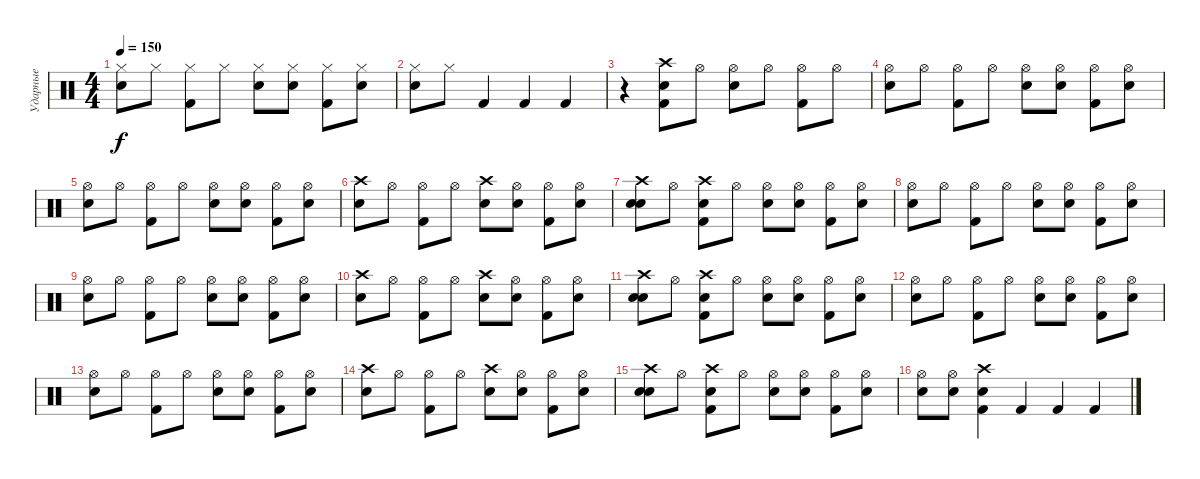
\track ("Ударные" "Ударные") {instrument percussion}
\staff {score}
\articulation defaults
\ts (4 4)
\tempo 150
\clef neutral
\ks c
("Hi-Hat (closed)" "Electric Snare (hit)").8{dy f} "Hi-Hat (closed)".8 ("Hi-Hat (closed)" "Kick (hit) 2").8 "Hi-Hat (closed)".8 ("Hi-Hat (closed)" "Electric Snare (hit)").8 ("Hi-Hat (closed)" "Snare (hit)").8 ("Hi-Hat (closed)" "Kick (hit) 2").8 ("Hi-Hat (closed)" "Snare (hit)").8 |
("Hi-Hat (closed)" "Electric Snare (hit)").8 "Hi-Hat (closed)".8 "Kick (hit) 2".4 "Kick (hit) 2".4 "Kick (hit) 2".4 |
r.4 ("Snare (hit)" "Kick (hit) 2" "Crash high (hit)").8 "Hi-Hat (open)".8 ("Hi-Hat (open)" "Electric Snare (hit)").8 "Hi-Hat (open)".8 ("Hi-Hat (open)" "Kick (hit) 2").8 "Hi-Hat (open)".8 |
("Hi-Hat (open)" "Electric Snare (hit)").8 "Hi-Hat (open)".8 ("Hi-Hat (open)" "Kick (hit) 2").8 "Hi-Hat (open)".8 ("Hi-Hat (open)" "Electric Snare (hit)").8 ("Hi-Hat (open)" "Snare (hit)").8 ("Hi-Hat (open)" "Kick (hit) 2").8 ("Hi-Hat (open)" "Snare (hit)").8 |
("Hi-Hat (open)" "Electric Snare (hit)").8 "Hi-Hat (open)".8 ("Hi-Hat (open)" "Kick (hit) 2").8 "Hi-Hat (open)".8 ("Hi-Hat (open)" "Electric Snare (hit)").8 ("Hi-Hat (open)" "Snare (hit)").8 ("Hi-Hat (open)" "Kick (hit) 2").8 ("Hi-Hat (open)" "Snare (hit)").8 |
("Crash high (hit)" "Electric Snare (hit)").8 "Hi-Hat (open)".8 ("Hi-Hat (open)" "Kick (hit) 2").8 "Hi-Hat (open)".8 ("Crash high (hit)" "Electric Snare (hit)").8 ("Hi-Hat (open)" "Snare (hit)").8 ("Hi-Hat (open)" "Kick (hit) 2").8 ("Hi-Hat (open)" "Snare (hit)").8 |
("Snare (hit)" "Electric Snare (hit)" "Crash high (hit)").8 "Hi-Hat (open)".8 ("Snare (hit)" "Kick (hit) 2" "Crash high (hit)").8 "Hi-Hat (open)".8 ("Hi-Hat (open)" "Electric Snare (hit)").8 ("Hi-Hat (open)" "Snare (hit)").8 ("Hi-Hat (open)" "Kick (hit) 2").8 ("Hi-Hat (open)" "Snare (hit)").8 |
("Hi-Hat (open)" "Electric Snare (hit)").8 "Hi-Hat (open)".8 ("Hi-Hat (open)" "Kick (hit) 2").8 "Hi-Hat (open)".8 ("Hi-Hat (open)" "Electric Snare (hit)").8 ("Hi-Hat (open)" "Snare (hit)").8 ("Hi-Hat (open)" "Kick (hit) 2").8 ("Hi-Hat (open)" "Snare (hit)").8 |
("Hi-Hat (open)" "Electric Snare (hit)").8 "Hi-Hat (open)".8 ("Hi-Hat (open)" "Kick (hit) 2").8 "Hi-Hat (open)".8 ("Hi-Hat (open)" "Electric Snare (hit)").8 ("Hi-Hat (open)" "Snare (hit)").8 ("Hi-Hat (open)" "Kick (hit) 2").8 ("Hi-Hat (open)" "Snare (hit)").8 |
("Crash high (hit)" "Electric Snare (hit)").8 "Hi-Hat (open)".8 ("Hi-Hat (open)" "Kick (hit) 2").8 "Hi-Hat (open)".8 ("Crash high (hit)" "Electric Snare (hit)").8 ("Hi-Hat (open)" "Snare (hit)").8 ("Hi-Hat (open)" "Kick (hit) 2").8 ("Hi-Hat (open)" "Snare (hit)").8 |
("Snare (hit)" "Electric Snare (hit)" "Crash high (hit)").8 "Hi-Hat (open)".8 ("Snare (hit)" "Kick (hit) 2" "Crash high (hit)").8 "Hi-Hat (open)".8 ("Hi-Hat (open)" "Electric Snare (hit)").8 ("Hi-Hat (open)" "Snare (hit)").8 ("Hi-Hat (open)" "Kick (hit) 2").8 ("Hi-Hat (open)" "Snare (hit)").8 |
("Hi-Hat (open)" "Electric Snare (hit)").8 "Hi-Hat (open)".8 ("Hi-Hat (open)" "Kick (hit) 2").8 "Hi-Hat (open)".8 ("Hi-Hat (open)" "Electric Snare (hit)").8 ("Hi-Hat (open)" "Snare (hit)").8 ("Hi-Hat (open)" "Kick (hit) 2").8 ("Hi-Hat (open)" "Snare (hit)").8 |
("Hi-Hat (open)" "Electric Snare (hit)").8 "Hi-Hat (open)".8 ("Hi-Hat (open)" "Kick (hit) 2").8 "Hi-Hat (open)".8 ("Hi-Hat (open)" "Electric Snare (hit)").8 ("Hi-Hat (open)" "Snare (hit)").8 ("Hi-Hat (open)" "Kick (hit) 2").8 ("Hi-Hat (open)" "Snare (hit)").8 |
("Crash high (hit)" "Electric Snare (hit)").8 "Hi-Hat (open)".8 ("Hi-Hat (open)" "Kick (hit) 2").8 "Hi-Hat (open)".8 ("Crash high (hit)" "Electric Snare (hit)").8 ("Hi-Hat (open)" "Snare (hit)").8 ("Hi-Hat (open)" "Kick (hit) 2").8 ("Hi-Hat (open)" "Snare (hit)").8 |
("Snare (hit)" "Electric Snare (hit)" "Crash high (hit)").8 "Hi-Hat (open)".8 ("Snare (hit)" "Kick (hit) 2" "Crash high (hit)").8 "Hi-Hat (open)".8 ("Hi-Hat (open)" "Electric Snare (hit)").8 ("Hi-Hat (open)" "Snare (hit)").8 ("Hi-Hat (open)" "Kick (hit) 2").8 ("Hi-Hat (open)" "Snare (hit)").8 |
("Hi-Hat (open)" "Electric Snare (hit)").8 ("Hi-Hat (open)" "Snare (hit)").8 ("Kick (hit) 2" "Snare (hit)" "Crash high (hit)").4 "Kick (hit) 2".4 "Kick (hit) 2".4 "Kick (hit) 2".4
